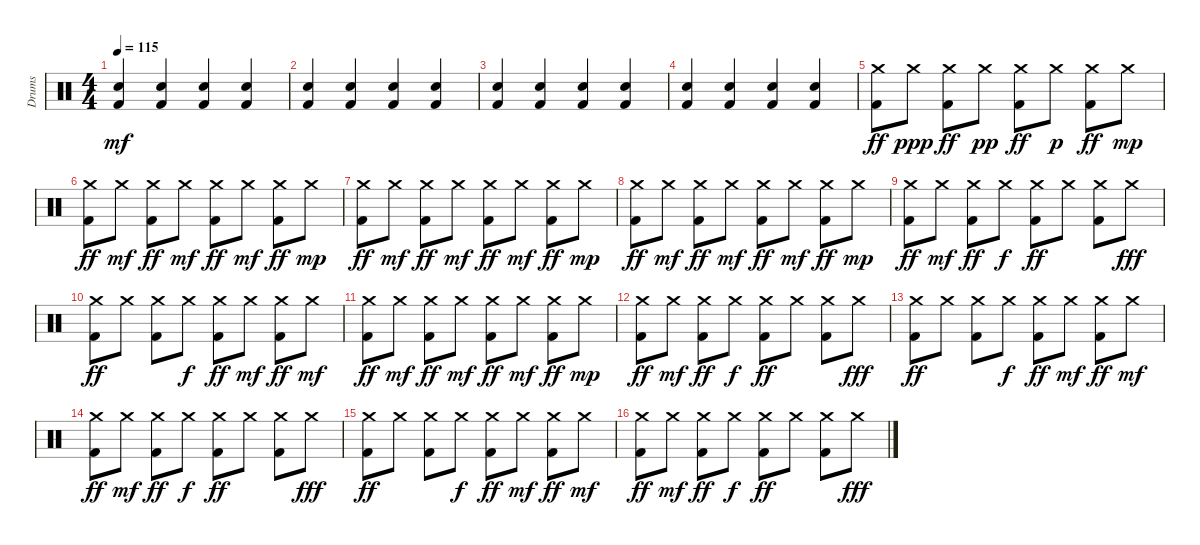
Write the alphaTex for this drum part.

\track ("Drums" "Drums") {instrument percussion}
\staff {score}
\articulation defaults
\ts (4 4)
\tempo 115
\clef neutral
\ks c
("Snare (hit) 2" "Kick (hit) 2").4{dy mf} ("Snare (hit) 2" "Kick (hit) 2").4 ("Snare (hit) 2" "Kick (hit) 2").4 ("Snare (hit) 2" "Kick (hit) 2").4 |
("Snare (hit) 2" "Kick (hit) 2").4 ("Snare (hit) 2" "Kick (hit) 2").4 ("Snare (hit) 2" "Kick (hit) 2").4 ("Snare (hit) 2" "Kick (hit) 2").4 |
("Snare (hit) 2" "Kick (hit) 2").4 ("Snare (hit) 2" "Kick (hit) 2").4 ("Snare (hit) 2" "Kick (hit) 2").4 ("Snare (hit) 2" "Kick (hit) 2").4 |
("Snare (hit) 2" "Kick (hit) 2").4 ("Snare (hit) 2" "Kick (hit) 2").4 ("Snare (hit) 2" "Kick (hit) 2").4 ("Snare (hit) 2" "Kick (hit) 2").4 |
("Crash medium (hit)" "Kick (hit) 2").8{dy ff} "Crash medium (hit)".8{dy ppp} ("Crash medium (hit)" "Kick (hit) 2").8{dy ff} "Crash medium (hit)".8{dy pp} ("Crash medium (hit)" "Kick (hit) 2").8{dy ff} "Crash medium (hit)".8{dy p} ("Crash medium (hit)" "Kick (hit) 2").8{dy ff} "Crash medium (hit)".8{dy mp} |
("Crash medium (hit)" "Kick (hit) 2").8{dy ff} "Crash medium (hit)".8{dy mf} ("Crash medium (hit)" "Kick (hit) 2").8{dy ff} "Crash medium (hit)".8{dy mf} ("Crash medium (hit)" "Kick (hit) 2").8{dy ff} "Crash medium (hit)".8{dy mf} ("Crash medium (hit)" "Kick (hit) 2").8{dy ff} "Crash medium (hit)".8{dy mp} |
("Crash medium (hit)" "Kick (hit) 2").8{dy ff} "Crash medium (hit)".8{dy mf} ("Crash medium (hit)" "Kick (hit) 2").8{dy ff} "Crash medium (hit)".8{dy mf} ("Crash medium (hit)" "Kick (hit) 2").8{dy ff} "Crash medium (hit)".8{dy mf} ("Crash medium (hit)" "Kick (hit) 2").8{dy ff} "Crash medium (hit)".8{dy mp} |
("Crash medium (hit)" "Kick (hit) 2").8{dy ff} "Crash medium (hit)".8{dy mf} ("Crash medium (hit)" "Kick (hit) 2").8{dy ff} "Crash medium (hit)".8{dy mf} ("Crash medium (hit)" "Kick (hit) 2").8{dy ff} "Crash medium (hit)".8{dy mf} ("Crash medium (hit)" "Kick (hit) 2").8{dy ff} "Crash medium (hit)".8{dy mp} |
("Crash medium (hit)" "Kick (hit) 2").8{dy ff} "Crash medium (hit)".8{dy mf} ("Crash medium (hit)" "Kick (hit) 2").8{dy ff} "Crash medium (hit)".8{dy f} ("Crash medium (hit)" "Kick (hit) 2").8{dy ff} "Crash medium (hit)".8 ("Crash medium (hit)" "Kick (hit) 2").8 "Crash medium (hit)".8{dy fff} |
("Crash medium (hit)" "Kick (hit) 2").8{dy ff} "Crash medium (hit)".8 ("Crash medium (hit)" "Kick (hit) 2").8 "Crash medium (hit)".8{dy f} ("Crash medium (hit)" "Kick (hit) 2").8{dy ff} "Crash medium (hit)".8{dy mf} ("Crash medium (hit)" "Kick (hit) 2").8{dy ff} "Crash medium (hit)".8{dy mf} |
("Crash medium (hit)" "Kick (hit) 2").8{dy ff} "Crash medium (hit)".8{dy mf} ("Crash medium (hit)" "Kick (hit) 2").8{dy ff} "Crash medium (hit)".8{dy mf} ("Crash medium (hit)" "Kick (hit) 2").8{dy ff} "Crash medium (hit)".8{dy mf} ("Crash medium (hit)" "Kick (hit) 2").8{dy ff} "Crash medium (hit)".8{dy mp} |
("Crash medium (hit)" "Kick (hit) 2").8{dy ff} "Crash medium (hit)".8{dy mf} ("Crash medium (hit)" "Kick (hit) 2").8{dy ff} "Crash medium (hit)".8{dy f} ("Crash medium (hit)" "Kick (hit) 2").8{dy ff} "Crash medium (hit)".8 ("Crash medium (hit)" "Kick (hit) 2").8 "Crash medium (hit)".8{dy fff} |
("Crash medium (hit)" "Kick (hit) 2").8{dy ff} "Crash medium (hit)".8 ("Crash medium (hit)" "Kick (hit) 2").8 "Crash medium (hit)".8{dy f} ("Crash medium (hit)" "Kick (hit) 2").8{dy ff} "Crash medium (hit)".8{dy mf} ("Crash medium (hit)" "Kick (hit) 2").8{dy ff} "Crash medium (hit)".8{dy mf} |
("Crash medium (hit)" "Kick (hit) 2").8{dy ff} "Crash medium (hit)".8{dy mf} ("Crash medium (hit)" "Kick (hit) 2").8{dy ff} "Crash medium (hit)".8{dy f} ("Crash medium (hit)" "Kick (hit) 2").8{dy ff} "Crash medium (hit)".8 ("Crash medium (hit)" "Kick (hit) 2").8 "Crash medium (hit)".8{dy fff} |
("Crash medium (hit)" "Kick (hit) 2").8{dy ff} "Crash medium (hit)".8 ("Crash medium (hit)" "Kick (hit) 2").8 "Crash medium (hit)".8{dy f} ("Crash medium (hit)" "Kick (hit) 2").8{dy ff} "Crash medium (hit)".8{dy mf} ("Crash medium (hit)" "Kick (hit) 2").8{dy ff} "Crash medium (hit)".8{dy mf} |
("Crash medium (hit)" "Kick (hit) 2").8{dy ff} "Crash medium (hit)".8{dy mf} ("Crash medium (hit)" "Kick (hit) 2").8{dy ff} "Crash medium (hit)".8{dy f} ("Crash medium (hit)" "Kick (hit) 2").8{dy ff} "Crash medium (hit)".8 ("Crash medium (hit)" "Kick (hit) 2").8 "Crash medium (hit)".8{dy fff}
